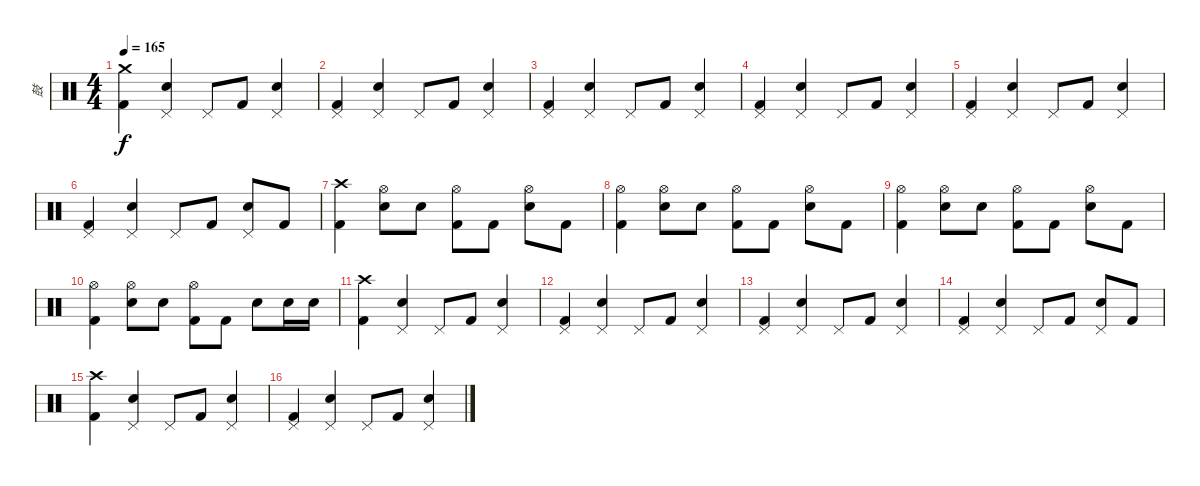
\track ("鼓" "鼓") {instrument percussion}
\staff {score}
\articulation defaults
\ts (4 4)
\tempo 165
\clef neutral
\ks c
("Crash medium (hit)" "Kick (hit) 2").4{dy f} ("Pedal Hi-Hat (hit)" "Snare (hit) 2").4 "Pedal Hi-Hat (hit)".8 "Kick (hit) 2".8 ("Pedal Hi-Hat (hit)" "Snare (hit) 2").4 |
("Pedal Hi-Hat (hit)" "Kick (hit) 2").4 ("Pedal Hi-Hat (hit)" "Snare (hit) 2").4 "Pedal Hi-Hat (hit)".8 "Kick (hit) 2".8 ("Pedal Hi-Hat (hit)" "Snare (hit) 2").4 |
("Pedal Hi-Hat (hit)" "Kick (hit) 2").4 ("Pedal Hi-Hat (hit)" "Snare (hit) 2").4 "Pedal Hi-Hat (hit)".8 "Kick (hit) 2".8 ("Pedal Hi-Hat (hit)" "Snare (hit) 2").4 |
("Pedal Hi-Hat (hit)" "Kick (hit) 2").4 ("Pedal Hi-Hat (hit)" "Snare (hit) 2").4 "Pedal Hi-Hat (hit)".8 "Kick (hit) 2".8 ("Pedal Hi-Hat (hit)" "Snare (hit) 2").4 |
("Pedal Hi-Hat (hit)" "Kick (hit) 2").4 ("Pedal Hi-Hat (hit)" "Snare (hit) 2").4 "Pedal Hi-Hat (hit)".8 "Kick (hit) 2".8 ("Pedal Hi-Hat (hit)" "Snare (hit) 2").4 |
("Pedal Hi-Hat (hit)" "Kick (hit) 2").4 ("Pedal Hi-Hat (hit)" "Snare (hit) 2").4 "Pedal Hi-Hat (hit)".8 "Kick (hit) 2".8 ("Pedal Hi-Hat (hit)" "Snare (hit) 2").8 "Kick (hit) 2".8 |
("Crash high (hit)" "Kick (hit) 2").4 ("Hi-Hat (open)" "Snare (hit) 2").8 "Snare (hit) 2".8 ("Hi-Hat (open)" "Kick (hit) 2").8 "Kick (hit) 2".8 ("Hi-Hat (open)" "Snare (hit) 2").8 "Kick (hit) 2".8 |
("Hi-Hat (open)" "Kick (hit) 2").4 ("Hi-Hat (open)" "Snare (hit) 2").8 "Snare (hit) 2".8 ("Hi-Hat (open)" "Kick (hit) 2").8 "Kick (hit) 2".8 ("Hi-Hat (open)" "Snare (hit) 2").8 "Kick (hit) 2".8 |
("Hi-Hat (open)" "Kick (hit) 2").4 ("Hi-Hat (open)" "Snare (hit) 2").8 "Snare (hit) 2".8 ("Hi-Hat (open)" "Kick (hit) 2").8 "Kick (hit) 2".8 ("Hi-Hat (open)" "Snare (hit) 2").8 "Kick (hit) 2".8 |
("Hi-Hat (open)" "Kick (hit) 2").4 ("Hi-Hat (open)" "Snare (hit) 2").8 "Snare (hit) 2".8 ("Hi-Hat (open)" "Kick (hit) 2").8 "Kick (hit) 2".8 "Snare (hit) 2".8 "Snare (hit) 2".16 "Snare (hit) 2".16 |
("Crash high (hit)" "Kick (hit) 2").4 ("Pedal Hi-Hat (hit)" "Snare (hit) 2").4 "Pedal Hi-Hat (hit)".8 "Kick (hit) 2".8 ("Pedal Hi-Hat (hit)" "Snare (hit) 2").4 |
("Pedal Hi-Hat (hit)" "Kick (hit) 2").4 ("Pedal Hi-Hat (hit)" "Snare (hit) 2").4 "Pedal Hi-Hat (hit)".8 "Kick (hit) 2".8 ("Pedal Hi-Hat (hit)" "Snare (hit) 2").4 |
("Pedal Hi-Hat (hit)" "Kick (hit) 2").4 ("Pedal Hi-Hat (hit)" "Snare (hit) 2").4 "Pedal Hi-Hat (hit)".8 "Kick (hit) 2".8 ("Pedal Hi-Hat (hit)" "Snare (hit) 2").4 |
("Pedal Hi-Hat (hit)" "Kick (hit) 2").4 ("Pedal Hi-Hat (hit)" "Snare (hit) 2").4 "Pedal Hi-Hat (hit)".8 "Kick (hit) 2".8 ("Pedal Hi-Hat (hit)" "Snare (hit) 2").8 "Kick (hit) 2".8 |
("Crash high (hit)" "Kick (hit) 2").4 ("Pedal Hi-Hat (hit)" "Snare (hit) 2").4 "Pedal Hi-Hat (hit)".8 "Kick (hit) 2".8 ("Pedal Hi-Hat (hit)" "Snare (hit) 2").4 |
("Pedal Hi-Hat (hit)" "Kick (hit) 2").4 ("Pedal Hi-Hat (hit)" "Snare (hit) 2").4 "Pedal Hi-Hat (hit)".8 "Kick (hit) 2".8 ("Pedal Hi-Hat (hit)" "Snare (hit) 2").4
